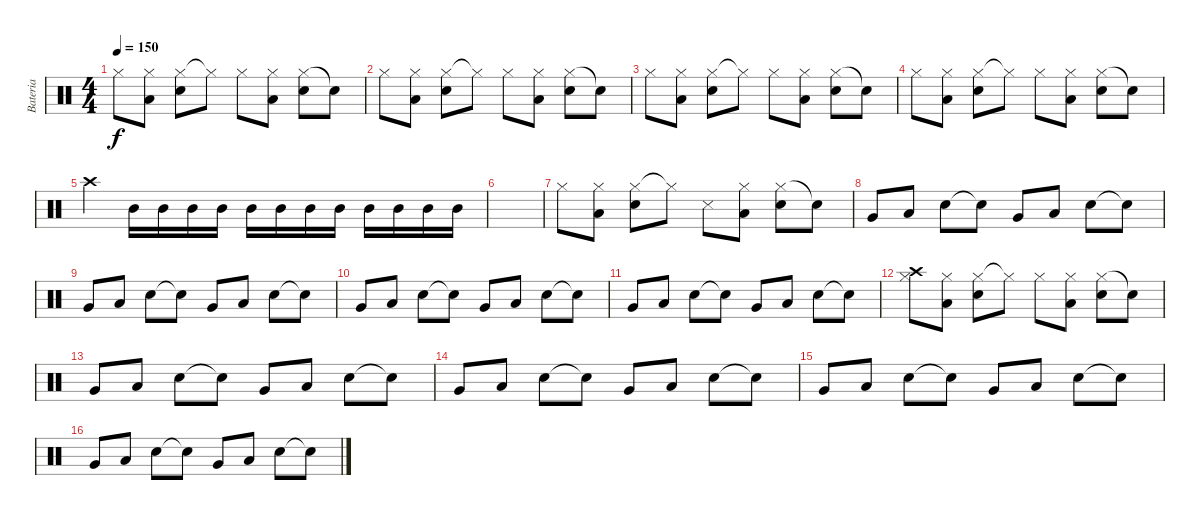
\track ("Bateria" "Bateria") {instrument percussion}
\staff {score}
\articulation defaults
\ts (4 4)
\tempo 150
\clef neutral
\ks c "Hi-Hat (closed)".8{dy f}
("Low Floor Tom (hit)" "Hi-Hat (closed)").8 ("Hi-Hat (closed)" "Snare (hit) 2").8 "Hi-Hat (closed)"{t}.8 "Hi-Hat (closed)".8 ("Low Floor Tom (hit)" "Hi-Hat (closed)").8 ("Hi-Hat (closed)" "Snare (hit) 2").8 "Snare (hit)"{t}.8 |
"Hi-Hat (closed)".8 ("Low Floor Tom (hit)" "Hi-Hat (closed)").8 ("Hi-Hat (closed)" "Snare (hit) 2").8 "Hi-Hat (closed)"{t}.8 "Hi-Hat (closed)".8 ("Low Floor Tom (hit)" "Hi-Hat (closed)").8 ("Hi-Hat (closed)" "Snare (hit) 2").8 "Snare (hit)"{t}.8 |
"Hi-Hat (closed)".8 ("Low Floor Tom (hit)" "Hi-Hat (closed)").8 ("Hi-Hat (closed)" "Snare (hit) 2").8 "Hi-Hat (closed)"{t}.8 "Hi-Hat (closed)".8 ("Low Floor Tom (hit)" "Hi-Hat (closed)").8 ("Hi-Hat (closed)" "Snare (hit) 2").8 "Snare (hit)"{t}.8 |
"Hi-Hat (closed)".8 ("Low Floor Tom (hit)" "Hi-Hat (closed)").8 ("Hi-Hat (closed)" "Snare (hit) 2").8 "Hi-Hat (closed)"{t}.8 "Hi-Hat (closed)".8 ("Low Floor Tom (hit)" "Hi-Hat (closed)").8 ("Hi-Hat (closed)" "Snare (hit) 2").8 "Snare (hit)"{t}.8 |
"Crash high (hit)".4 "Mid Tom (hit)".16 "Mid Tom (hit)".16 "Mid Tom (hit)".16 "Mid Tom (hit)".16 "Mid Tom (hit)".16 "Mid Tom (hit)".16 "Mid Tom (hit)".16 "Mid Tom (hit)".16 "Mid Tom (hit)".16 "Mid Tom (hit)".16 "Mid Tom (hit)".16 "Mid Tom (hit)".16 |
|
"Hi-Hat (closed)".8 ("Low Floor Tom (hit)" "Hi-Hat (closed)").8 ("Hi-Hat (closed)" "Snare (hit) 2").8 "Hi-Hat (closed)"{t}.8 "Snare (side stick) 3".8 ("Low Floor Tom (hit)" "Hi-Hat (closed)").8 ("Hi-Hat (closed)" "Snare (hit) 2").8 "Snare (hit)"{t}.8 |
"Very Low Tom (hit)".8 "Low Floor Tom (hit)".8 "Snare (hit) 2".8 "Snare (hit)"{t}.8 "Very Low Tom (hit)".8 "Low Floor Tom (hit)".8 "Snare (hit) 2".8 "Snare (hit)"{t}.8 |
"Very Low Tom (hit)".8 "Low Floor Tom (hit)".8 "Snare (hit) 2".8 "Snare (hit)"{t}.8 "Very Low Tom (hit)".8 "Low Floor Tom (hit)".8 "Snare (hit) 2".8 "Snare (hit)"{t}.8 |
"Very Low Tom (hit)".8 "Low Floor Tom (hit)".8 "Snare (hit) 2".8 "Snare (hit)"{t}.8 "Very Low Tom (hit)".8 "Low Floor Tom (hit)".8 "Snare (hit) 2".8 "Snare (hit)"{t}.8 |
"Very Low Tom (hit)".8 "Low Floor Tom (hit)".8 "Snare (hit) 2".8 "Snare (hit)"{t}.8 "Very Low Tom (hit)".8 "Low Floor Tom (hit)".8 "Snare (hit) 2".8 "Snare (hit)"{t}.8 |
("Hi-Hat (closed)" "Crash high (hit)").8 ("Low Floor Tom (hit)" "Hi-Hat (closed)").8 ("Hi-Hat (closed)" "Snare (hit) 2").8 "Hi-Hat (closed)"{t}.8 "Hi-Hat (closed)".8 ("Low Floor Tom (hit)" "Hi-Hat (closed)").8 ("Hi-Hat (closed)" "Snare (hit) 2").8 "Snare (hit)"{t}.8 |
"Very Low Tom (hit)".8 "Low Floor Tom (hit)".8 "Snare (hit) 2".8 "Snare (hit)"{t}.8 "Very Low Tom (hit)".8 "Low Floor Tom (hit)".8 "Snare (hit) 2".8 "Snare (hit)"{t}.8 |
"Very Low Tom (hit)".8 "Low Floor Tom (hit)".8 "Snare (hit) 2".8 "Snare (hit)"{t}.8 "Very Low Tom (hit)".8 "Low Floor Tom (hit)".8 "Snare (hit) 2".8 "Snare (hit)"{t}.8 |
"Very Low Tom (hit)".8 "Low Floor Tom (hit)".8 "Snare (hit) 2".8 "Snare (hit)"{t}.8 "Very Low Tom (hit)".8 "Low Floor Tom (hit)".8 "Snare (hit) 2".8 "Snare (hit)"{t}.8 |
"Very Low Tom (hit)".8 "Low Floor Tom (hit)".8 "Snare (hit) 2".8 "Snare (hit)"{t}.8 "Very Low Tom (hit)".8 "Low Floor Tom (hit)".8 "Snare (hit) 2".8 "Snare (hit)"{t}.8
